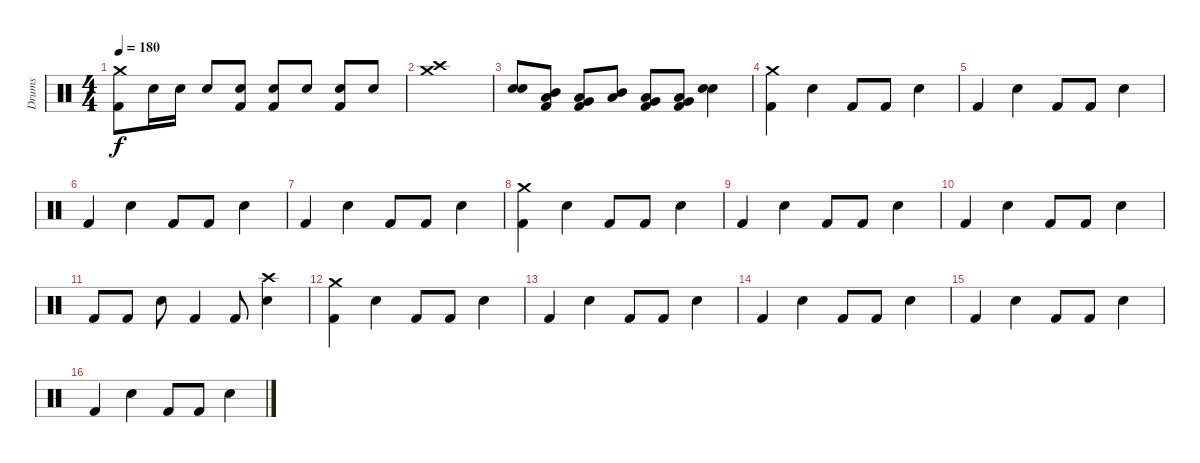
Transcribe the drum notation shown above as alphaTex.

\track ("Drums" "Drums") {instrument percussion}
\staff {score}
\articulation defaults
\ts (4 4)
\tempo 180
\clef neutral
\ks c
("Crash medium (hit)" "Kick (hit) 2").8{dy f} "Electric Snare (hit)".16 "Electric Snare (hit)".16 "Electric Snare (hit)".8 ("Electric Snare (hit)" "Kick (hit) 2").8 ("Electric Snare (hit)" "Kick (hit) 2").8 "Electric Snare (hit)".8 ("Electric Snare (hit)" "Kick (hit) 2").8 "Electric Snare (hit)".8 |
("Crash medium (hit)" "Crash high (hit)").1 |
("Electric Snare (hit)" "Electric Snare (hit)").8 ("Low Tom (hit)" "Mid Tom (hit)" "Kick (hit) 2").8 ("Very Low Tom (hit)" "Low Tom (hit)" "Kick (hit) 2").8 ("Low Tom (hit)" "Mid Tom (hit)").8 ("Very Low Tom (hit)" "Low Tom (hit)" "Kick (hit) 2").8 ("Low Floor Tom (hit)" "Very Low Tom (hit)" "Kick (hit) 2").8 ("Electric Snare (hit)" "Electric Snare (hit)").4 |
\section ("" "")
("Crash medium (hit)" "Kick (hit) 2").4 "Electric Snare (hit)".4 "Kick (hit) 2".8 "Kick (hit) 2".8 "Electric Snare (hit)".4 |
"Kick (hit) 2".4 "Electric Snare (hit)".4 "Kick (hit) 2".8 "Kick (hit) 2".8 "Electric Snare (hit)".4 |
"Kick (hit) 2".4 "Electric Snare (hit)".4 "Kick (hit) 2".8 "Kick (hit) 2".8 "Electric Snare (hit)".4 |
"Kick (hit) 2".4 "Electric Snare (hit)".4 "Kick (hit) 2".8 "Kick (hit) 2".8 "Electric Snare (hit)".4 |
("Crash medium (hit)" "Kick (hit) 2").4 "Electric Snare (hit)".4 "Kick (hit) 2".8 "Kick (hit) 2".8 "Electric Snare (hit)".4 |
"Kick (hit) 2".4 "Electric Snare (hit)".4 "Kick (hit) 2".8 "Kick (hit) 2".8 "Electric Snare (hit)".4 |
"Kick (hit) 2".4 "Electric Snare (hit)".4 "Kick (hit) 2".8 "Kick (hit) 2".8 "Electric Snare (hit)".4 |
"Kick (hit) 2".8 "Kick (hit) 2".8 "Electric Snare (hit)".8 "Kick (hit) 2".4 "Kick (hit) 2".8 ("Crash high (hit)" "Electric Snare (hit)").4 |
("Crash medium (hit)" "Kick (hit) 2").4 "Electric Snare (hit)".4 "Kick (hit) 2".8 "Kick (hit) 2".8 "Electric Snare (hit)".4 |
"Kick (hit) 2".4 "Electric Snare (hit)".4 "Kick (hit) 2".8 "Kick (hit) 2".8 "Electric Snare (hit)".4 |
"Kick (hit) 2".4 "Electric Snare (hit)".4 "Kick (hit) 2".8 "Kick (hit) 2".8 "Electric Snare (hit)".4 |
"Kick (hit) 2".4 "Electric Snare (hit)".4 "Kick (hit) 2".8 "Kick (hit) 2".8 "Electric Snare (hit)".4 |
"Kick (hit) 2".4 "Electric Snare (hit)".4 "Kick (hit) 2".8 "Kick (hit) 2".8 "Electric Snare (hit)".4
